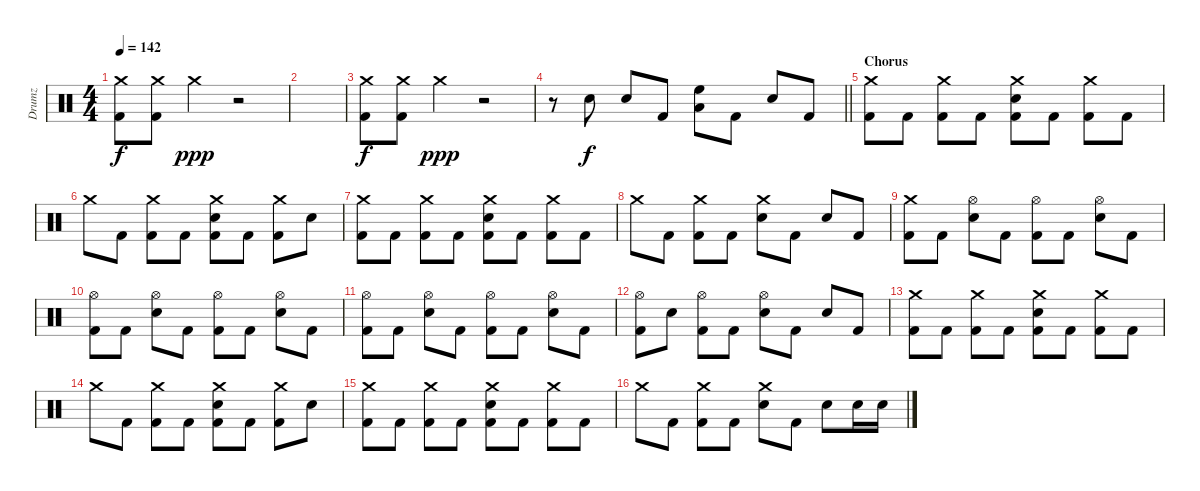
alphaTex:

\track ("Drumz" "Drumz") {instrument percussion}
\staff {score}
\articulation defaults
\ts (4 4)
\tempo 142
\clef neutral
\ks c
("Crash medium (hit)" "Kick (hit) 2").8{dy f} ("Crash medium (hit)" "Kick (hit) 2").8 "Crash medium (hit)".4{dy ppp} r.2 |
|
("Crash medium (hit)" "Kick (hit) 2").8{dy f} ("Crash medium (hit)" "Kick (hit) 2").8 "Crash medium (hit)".4{dy ppp} r.2 |
\barLineRight lightlight
r.8 "Electric Snare (hit)".8{dy f} "Electric Snare (hit)".8 "Kick (hit) 2".8 ("Low Floor Tom (hit)" "High Floor Tom (hit)").8 "Kick (hit) 2".8 "Electric Snare (hit)".8 "Kick (hit) 2".8 |
\section ("" "Chorus")
("Crash medium (hit)" "Kick (hit) 2").8 "Kick (hit) 2".8 ("Crash medium (hit)" "Kick (hit) 2").8 "Kick (hit) 2".8 ("Crash medium (hit)" "Electric Snare (hit)" "Kick (hit) 2").8 "Kick (hit) 2".8 ("Crash medium (hit)" "Kick (hit) 2").8 "Kick (hit) 2".8 |
"Crash medium (hit)".8 "Kick (hit) 2".8 ("Crash medium (hit)" "Kick (hit) 2").8 "Kick (hit) 2".8 ("Crash medium (hit)" "Electric Snare (hit)" "Kick (hit) 2").8 "Kick (hit) 2".8 ("Crash medium (hit)" "Kick (hit) 2").8 "Electric Snare (hit)".8 |
("Crash medium (hit)" "Kick (hit) 2").8 "Kick (hit) 2".8 ("Crash medium (hit)" "Kick (hit) 2").8 "Kick (hit) 2".8 ("Crash medium (hit)" "Electric Snare (hit)" "Kick (hit) 2").8 "Kick (hit) 2".8 ("Crash medium (hit)" "Kick (hit) 2").8 "Kick (hit) 2".8 |
"Crash medium (hit)".8 "Kick (hit) 2".8 ("Crash medium (hit)" "Kick (hit) 2").8 "Kick (hit) 2".8 ("Crash medium (hit)" "Electric Snare (hit)").8 "Kick (hit) 2".8 "Electric Snare (hit)".8 "Kick (hit) 2".8 |
("Crash medium (hit)" "Kick (hit) 2").8 "Kick (hit) 2".8 ("Hi-Hat (open)" "Electric Snare (hit)").8 "Kick (hit) 2".8 ("Hi-Hat (open)" "Kick (hit) 2").8 "Kick (hit) 2".8 ("Hi-Hat (open)" "Electric Snare (hit)").8 "Kick (hit) 2".8 |
("Hi-Hat (open)" "Kick (hit) 2").8 "Kick (hit) 2".8 ("Hi-Hat (open)" "Electric Snare (hit)").8 "Kick (hit) 2".8 ("Hi-Hat (open)" "Kick (hit) 2").8 "Kick (hit) 2".8 ("Hi-Hat (open)" "Electric Snare (hit)").8 "Kick (hit) 2".8 |
("Hi-Hat (open)" "Kick (hit) 2").8 "Kick (hit) 2".8 ("Hi-Hat (open)" "Electric Snare (hit)").8 "Kick (hit) 2".8 ("Hi-Hat (open)" "Kick (hit) 2").8 "Kick (hit) 2".8 ("Hi-Hat (open)" "Electric Snare (hit)").8 "Kick (hit) 2".8 |
("Hi-Hat (open)" "Kick (hit) 2").8 "Electric Snare (hit)".8 ("Hi-Hat (open)" "Kick (hit) 2").8 "Kick (hit) 2".8 ("Hi-Hat (open)" "Electric Snare (hit)").8 "Kick (hit) 2".8 "Electric Snare (hit)".8 "Kick (hit) 2".8 |
("Crash medium (hit)" "Kick (hit) 2").8 "Kick (hit) 2".8 ("Crash medium (hit)" "Kick (hit) 2").8 "Kick (hit) 2".8 ("Crash medium (hit)" "Electric Snare (hit)" "Kick (hit) 2").8 "Kick (hit) 2".8 ("Crash medium (hit)" "Kick (hit) 2").8 "Kick (hit) 2".8 |
"Crash medium (hit)".8 "Kick (hit) 2".8 ("Crash medium (hit)" "Kick (hit) 2").8 "Kick (hit) 2".8 ("Crash medium (hit)" "Electric Snare (hit)" "Kick (hit) 2").8 "Kick (hit) 2".8 ("Crash medium (hit)" "Kick (hit) 2").8 "Electric Snare (hit)".8 |
("Crash medium (hit)" "Kick (hit) 2").8 "Kick (hit) 2".8 ("Crash medium (hit)" "Kick (hit) 2").8 "Kick (hit) 2".8 ("Crash medium (hit)" "Electric Snare (hit)" "Kick (hit) 2").8 "Kick (hit) 2".8 ("Crash medium (hit)" "Kick (hit) 2").8 "Kick (hit) 2".8 |
"Crash medium (hit)".8 "Kick (hit) 2".8 ("Crash medium (hit)" "Kick (hit) 2").8 "Kick (hit) 2".8 ("Crash medium (hit)" "Electric Snare (hit)").8 "Kick (hit) 2".8 "Electric Snare (hit)".8 "Electric Snare (hit)".16 "Electric Snare (hit)".16
